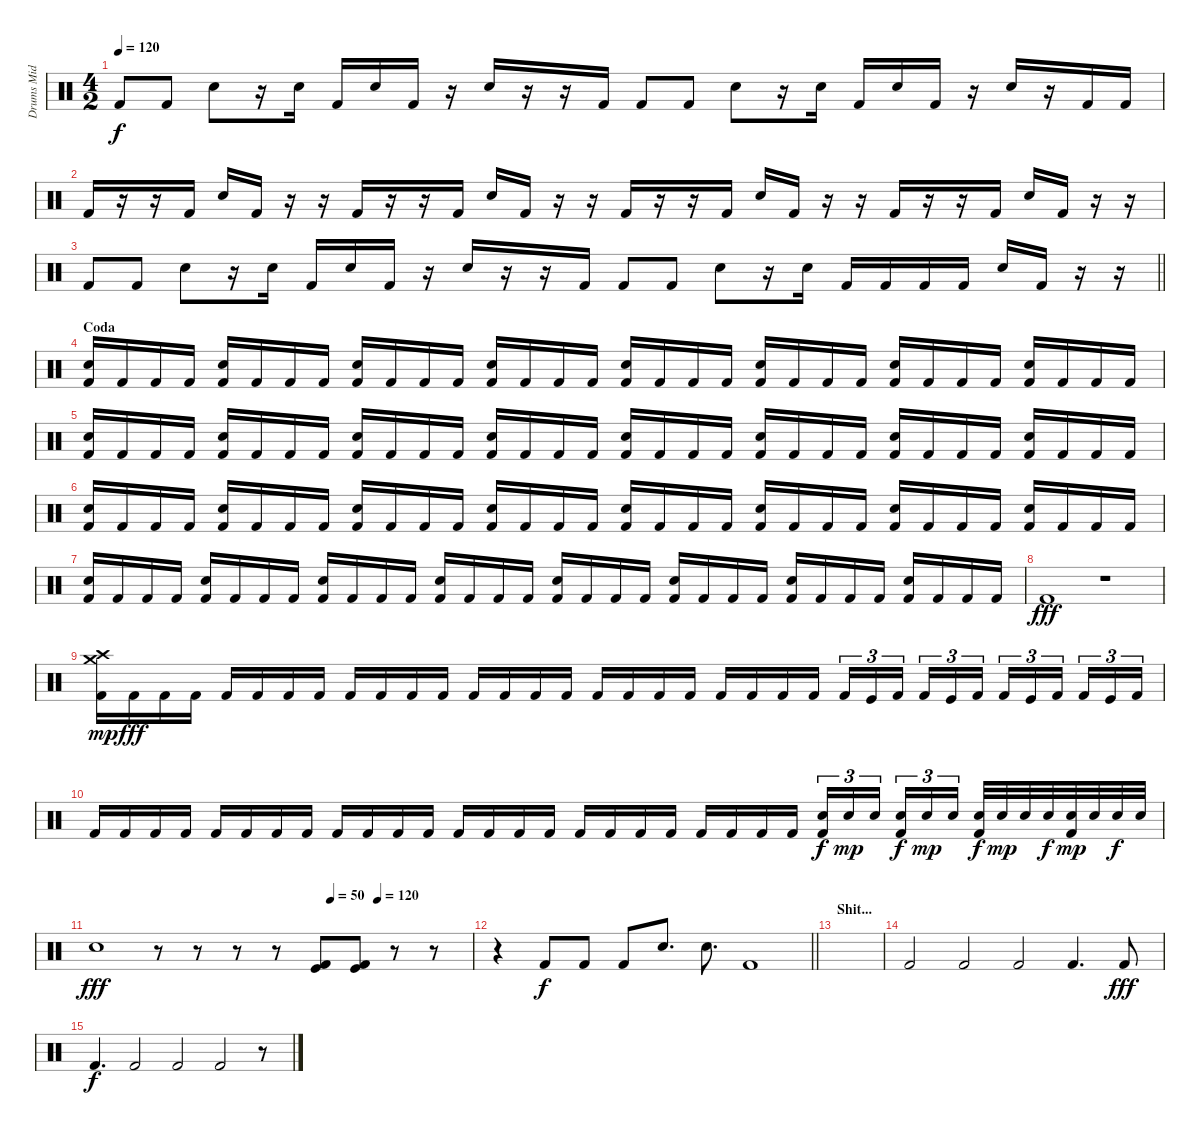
\track ("Drums Mid" "Drums Mid") {instrument percussion}
\staff {score}
\articulation defaults
\ts (4 2)
\tempo 120
\clef neutral
\ks c "Kick (hit) 2".8{dy f} "Kick (hit) 2".8 "Snare (hit) 2".8
r.16 "Snare (hit) 2".16 "Kick (hit) 2".16 "Snare (hit) 2".16 "Kick (hit) 2".16 r.16 "Snare (hit) 2".16 r.16 r.16 "Kick (hit) 2".16 "Kick (hit) 2".8 "Kick (hit) 2".8 "Snare (hit) 2".8 r.16 "Snare (hit) 2".16 "Kick (hit) 2".16 "Snare (hit) 2".16 "Kick (hit) 2".16 r.16 "Snare (hit) 2".16 r.16 "Kick (hit) 2".16 "Kick (hit) 2".16 |
"Kick (hit) 2".16 r.16 r.16 "Kick (hit) 2".16 "Snare (hit) 2".16 "Kick (hit) 2".16 r.16 r.16 "Kick (hit) 2".16 r.16 r.16 "Kick (hit) 2".16 "Snare (hit) 2".16 "Kick (hit) 2".16 r.16 r.16 "Kick (hit) 2".16 r.16 r.16 "Kick (hit) 2".16 "Snare (hit) 2".16 "Kick (hit) 2".16 r.16 r.16 "Kick (hit) 2".16 r.16 r.16 "Kick (hit) 2".16 "Snare (hit) 2".16 "Kick (hit) 2".16 r.16 r.16 |
\barLineRight lightlight "Kick (hit) 2".8 "Kick (hit) 2".8 "Snare (hit) 2".8
r.16 "Snare (hit) 2".16 "Kick (hit) 2".16 "Snare (hit) 2".16 "Kick (hit) 2".16 r.16 "Snare (hit) 2".16 r.16 r.16 "Kick (hit) 2".16 "Kick (hit) 2".8 "Kick (hit) 2".8 "Snare (hit) 2".8 r.16 "Snare (hit) 2".16 "Kick (hit) 2".16 "Kick (hit) 2".16 "Kick (hit) 2".16 "Kick (hit) 2".16 "Snare (hit) 2".16 "Kick (hit) 2".16 r.16 r.16 |
\section ("" "Coda")
("Snare (hit) 2" "Kick (hit) 2").16 "Kick (hit) 2".16 "Kick (hit) 2".16 "Kick (hit) 2".16 ("Snare (hit) 2" "Kick (hit) 2").16 "Kick (hit) 2".16 "Kick (hit) 2".16 "Kick (hit) 2".16 ("Snare (hit) 2" "Kick (hit) 2").16 "Kick (hit) 2".16 "Kick (hit) 2".16 "Kick (hit) 2".16 ("Snare (hit) 2" "Kick (hit) 2").16 "Kick (hit) 2".16 "Kick (hit) 2".16 "Kick (hit) 2".16 ("Snare (hit) 2" "Kick (hit) 2").16 "Kick (hit) 2".16 "Kick (hit) 2".16 "Kick (hit) 2".16 ("Snare (hit) 2" "Kick (hit) 2").16 "Kick (hit) 2".16 "Kick (hit) 2".16 "Kick (hit) 2".16 ("Snare (hit) 2" "Kick (hit) 2").16 "Kick (hit) 2".16 "Kick (hit) 2".16 "Kick (hit) 2".16 ("Snare (hit) 2" "Kick (hit) 2").16 "Kick (hit) 2".16 "Kick (hit) 2".16 "Kick (hit) 2".16 |
("Snare (hit) 2" "Kick (hit) 2").16 "Kick (hit) 2".16 "Kick (hit) 2".16 "Kick (hit) 2".16 ("Snare (hit) 2" "Kick (hit) 2").16 "Kick (hit) 2".16 "Kick (hit) 2".16 "Kick (hit) 2".16 ("Snare (hit) 2" "Kick (hit) 2").16 "Kick (hit) 2".16 "Kick (hit) 2".16 "Kick (hit) 2".16 ("Snare (hit) 2" "Kick (hit) 2").16 "Kick (hit) 2".16 "Kick (hit) 2".16 "Kick (hit) 2".16 ("Snare (hit) 2" "Kick (hit) 2").16 "Kick (hit) 2".16 "Kick (hit) 2".16 "Kick (hit) 2".16 ("Snare (hit) 2" "Kick (hit) 2").16 "Kick (hit) 2".16 "Kick (hit) 2".16 "Kick (hit) 2".16 ("Snare (hit) 2" "Kick (hit) 2").16 "Kick (hit) 2".16 "Kick (hit) 2".16 "Kick (hit) 2".16 ("Snare (hit) 2" "Kick (hit) 2").16 "Kick (hit) 2".16 "Kick (hit) 2".16 "Kick (hit) 2".16 |
("Snare (hit) 2" "Kick (hit) 2").16 "Kick (hit) 2".16 "Kick (hit) 2".16 "Kick (hit) 2".16 ("Snare (hit) 2" "Kick (hit) 2").16 "Kick (hit) 2".16 "Kick (hit) 2".16 "Kick (hit) 2".16 ("Snare (hit) 2" "Kick (hit) 2").16 "Kick (hit) 2".16 "Kick (hit) 2".16 "Kick (hit) 2".16 ("Snare (hit) 2" "Kick (hit) 2").16 "Kick (hit) 2".16 "Kick (hit) 2".16 "Kick (hit) 2".16 ("Snare (hit) 2" "Kick (hit) 2").16 "Kick (hit) 2".16 "Kick (hit) 2".16 "Kick (hit) 2".16 ("Snare (hit) 2" "Kick (hit) 2").16 "Kick (hit) 2".16 "Kick (hit) 2".16 "Kick (hit) 2".16 ("Snare (hit) 2" "Kick (hit) 2").16 "Kick (hit) 2".16 "Kick (hit) 2".16 "Kick (hit) 2".16 ("Snare (hit) 2" "Kick (hit) 2").16 "Kick (hit) 2".16 "Kick (hit) 2".16 "Kick (hit) 2".16 |
("Snare (hit) 2" "Kick (hit) 2").16 "Kick (hit) 2".16 "Kick (hit) 2".16 "Kick (hit) 2".16 ("Snare (hit) 2" "Kick (hit) 2").16 "Kick (hit) 2".16 "Kick (hit) 2".16 "Kick (hit) 2".16 ("Snare (hit) 2" "Kick (hit) 2").16 "Kick (hit) 2".16 "Kick (hit) 2".16 "Kick (hit) 2".16 ("Snare (hit) 2" "Kick (hit) 2").16 "Kick (hit) 2".16 "Kick (hit) 2".16 "Kick (hit) 2".16 ("Snare (hit) 2" "Kick (hit) 2").16 "Kick (hit) 2".16 "Kick (hit) 2".16 "Kick (hit) 2".16 ("Snare (hit) 2" "Kick (hit) 2").16 "Kick (hit) 2".16 "Kick (hit) 2".16 "Kick (hit) 2".16 ("Snare (hit) 2" "Kick (hit) 2").16 "Kick (hit) 2".16 "Kick (hit) 2".16 "Kick (hit) 2".16 ("Snare (hit) 2" "Kick (hit) 2").16 "Kick (hit) 2".16 "Kick (hit) 2".16 "Kick (hit) 2".16 |
"Kick (hit) 2".1{dy fff} r.1 |
("Kick (hit) 2" "Crash high (hit)" "Crash medium (hit)").16{dy mp} "Kick (hit) 2".16{dy fff} "Kick (hit) 2".16 "Kick (hit) 2".16 "Kick (hit) 2".16 "Kick (hit) 2".16 "Kick (hit) 2".16 "Kick (hit) 2".16 "Kick (hit) 2".16 "Kick (hit) 2".16 "Kick (hit) 2".16 "Kick (hit) 2".16 "Kick (hit) 2".16 "Kick (hit) 2".16 "Kick (hit) 2".16 "Kick (hit) 2".16 "Kick (hit) 2".16 "Kick (hit) 2".16 "Kick (hit) 2".16 "Kick (hit) 2".16 "Kick (hit) 2".16 "Kick (hit) 2".16 "Kick (hit) 2".16 "Kick (hit) 2".16 "Kick (hit) 2".16{tu (3 2)} "Kick (hit)".16{tu (3 2)} "Kick (hit) 2".16{tu (3 2) beam splitsecondary} "Kick (hit) 2".16{tu (3 2)} "Kick (hit)".16{tu (3 2)} "Kick (hit) 2".16{tu (3 2) beam splitsecondary} "Kick (hit) 2".16{tu (3 2)} "Kick (hit)".16{tu (3 2)} "Kick (hit) 2".16{tu (3 2) beam splitsecondary} "Kick (hit) 2".16{tu (3 2)} "Kick (hit)".16{tu (3 2)} "Kick (hit) 2".16{tu (3 2)} |
"Kick (hit) 2".16 "Kick (hit) 2".16 "Kick (hit) 2".16 "Kick (hit) 2".16 "Kick (hit) 2".16 "Kick (hit) 2".16 "Kick (hit) 2".16 "Kick (hit) 2".16 "Kick (hit) 2".16 "Kick (hit) 2".16 "Kick (hit) 2".16 "Kick (hit) 2".16 "Kick (hit) 2".16 "Kick (hit) 2".16 "Kick (hit) 2".16 "Kick (hit) 2".16 "Kick (hit) 2".16 "Kick (hit) 2".16 "Kick (hit) 2".16 "Kick (hit) 2".16 "Kick (hit) 2".16 "Kick (hit) 2".16 "Kick (hit) 2".16 "Kick (hit) 2".16 ("Snare (hit) 2" "Kick (hit) 2").16{tu (3 2) dy f} "Snare (hit) 2".16{tu (3 2) dy mp} "Snare (hit) 2".16{tu (3 2) beam splitsecondary} ("Snare (hit) 2" "Kick (hit) 2").16{tu (3 2) dy f} "Snare (hit) 2".16{tu (3 2) dy mp} "Snare (hit) 2".16{tu (3 2) beam splitsecondary} ("Snare (hit) 2" "Kick (hit) 2").32{dy f} "Snare (hit) 2".32{dy mp} "Snare (hit) 2".32 "Snare (hit) 2".32{dy f} ("Snare (hit) 2" "Kick (hit) 2").32{dy mp} "Snare (hit) 2".32 "Snare (hit) 2".32{dy f} "Snare (hit) 2".32 |
\tempo (50 0.625)
\tempo (120 0.75)
"Snare (hit) 2".1{dy fff} r.8 r.8 r.8 r.8 ("Kick (hit) 2" "Kick (hit)").8 ("Kick (hit) 2" "Kick (hit)").8 r.8 r.8 |
\barLineRight lightlight
r.4 "Kick (hit) 2".8{dy f} "Kick (hit) 2".8 "Kick (hit) 2".8 "Snare (hit) 2".8{d} "Snare (hit) 2".8{d} "Kick (hit) 2".1 |
\section ("" "Shit...")
|
"Kick (hit) 2".2 "Kick (hit) 2".2 "Kick (hit) 2".2 "Kick (hit) 2".4{d} "Kick (hit) 2".8{dy fff} |
"Kick (hit) 2".4{d dy f} "Kick (hit) 2".2 "Kick (hit) 2".2 "Kick (hit) 2".2 r.8
